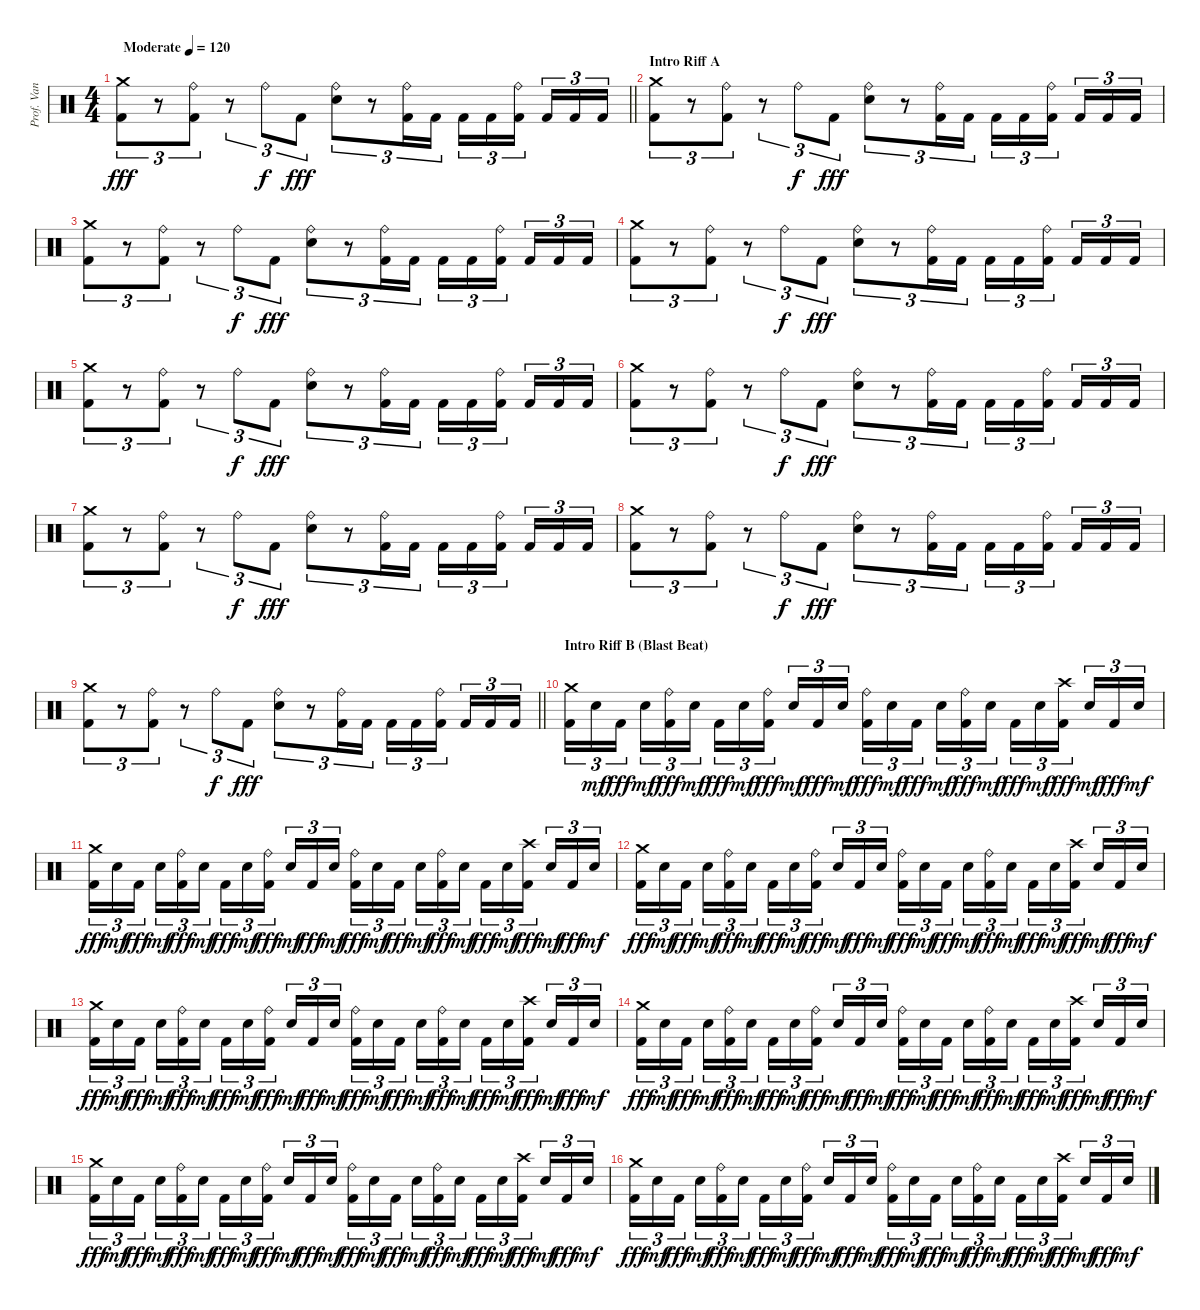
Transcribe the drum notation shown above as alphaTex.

\track ("Prof. Van Helsing (Drums)" "Prof. Van ") {instrument percussion}
\staff {score}
\articulation defaults
\ts (4 4)
\tempo (120 "Moderate")
\clef neutral
\barLineRight lightlight
\ks c
("Crash medium (hit)" "Kick (hit) 2").8{tu (3 2) dy fff} r.8{tu (3 2)} ("Ride (bell)" "Kick (hit) 2").8{tu (3 2)} r.8{tu (3 2)} "Ride (bell)".8{tu (3 2) dy f} "Kick (hit) 2".8{tu (3 2) dy fff} ("Ride (bell)" "Snare (hit) 2").8{tu (3 2)} r.8{tu (3 2)} ("Ride (bell)" "Kick (hit) 2").16{tu (3 2)} "Kick (hit) 2".16{tu (3 2)} "Kick (hit) 2".16{tu (3 2)} "Kick (hit) 2".16{tu (3 2)} ("Ride (bell)" "Kick (hit) 2").16{tu (3 2) beam splitsecondary} "Kick (hit) 2".16{tu (3 2)} "Kick (hit) 2".16{tu (3 2)} "Kick (hit) 2".16{tu (3 2)} |
\section ("" "Intro Riff A")
("Crash medium (hit)" "Kick (hit) 2").8{tu (3 2)} r.8{tu (3 2)} ("Ride (bell)" "Kick (hit) 2").8{tu (3 2)} r.8{tu (3 2)} "Ride (bell)".8{tu (3 2) dy f} "Kick (hit) 2".8{tu (3 2) dy fff} ("Ride (bell)" "Snare (hit) 2").8{tu (3 2)} r.8{tu (3 2)} ("Ride (bell)" "Kick (hit) 2").16{tu (3 2)} "Kick (hit) 2".16{tu (3 2)} "Kick (hit) 2".16{tu (3 2)} "Kick (hit) 2".16{tu (3 2)} ("Ride (bell)" "Kick (hit) 2").16{tu (3 2) beam splitsecondary} "Kick (hit) 2".16{tu (3 2)} "Kick (hit) 2".16{tu (3 2)} "Kick (hit) 2".16{tu (3 2)} |
("Crash medium (hit)" "Kick (hit) 2").8{tu (3 2)} r.8{tu (3 2)} ("Ride (bell)" "Kick (hit) 2").8{tu (3 2)} r.8{tu (3 2)} "Ride (bell)".8{tu (3 2) dy f} "Kick (hit) 2".8{tu (3 2) dy fff} ("Ride (bell)" "Snare (hit) 2").8{tu (3 2)} r.8{tu (3 2)} ("Ride (bell)" "Kick (hit) 2").16{tu (3 2)} "Kick (hit) 2".16{tu (3 2)} "Kick (hit) 2".16{tu (3 2)} "Kick (hit) 2".16{tu (3 2)} ("Ride (bell)" "Kick (hit) 2").16{tu (3 2) beam splitsecondary} "Kick (hit) 2".16{tu (3 2)} "Kick (hit) 2".16{tu (3 2)} "Kick (hit) 2".16{tu (3 2)} |
("Crash medium (hit)" "Kick (hit) 2").8{tu (3 2)} r.8{tu (3 2)} ("Ride (bell)" "Kick (hit) 2").8{tu (3 2)} r.8{tu (3 2)} "Ride (bell)".8{tu (3 2) dy f} "Kick (hit) 2".8{tu (3 2) dy fff} ("Ride (bell)" "Snare (hit) 2").8{tu (3 2)} r.8{tu (3 2)} ("Ride (bell)" "Kick (hit) 2").16{tu (3 2)} "Kick (hit) 2".16{tu (3 2)} "Kick (hit) 2".16{tu (3 2)} "Kick (hit) 2".16{tu (3 2)} ("Ride (bell)" "Kick (hit) 2").16{tu (3 2) beam splitsecondary} "Kick (hit) 2".16{tu (3 2)} "Kick (hit) 2".16{tu (3 2)} "Kick (hit) 2".16{tu (3 2)} |
("Crash medium (hit)" "Kick (hit) 2").8{tu (3 2)} r.8{tu (3 2)} ("Ride (bell)" "Kick (hit) 2").8{tu (3 2)} r.8{tu (3 2)} "Ride (bell)".8{tu (3 2) dy f} "Kick (hit) 2".8{tu (3 2) dy fff} ("Ride (bell)" "Snare (hit) 2").8{tu (3 2)} r.8{tu (3 2)} ("Ride (bell)" "Kick (hit) 2").16{tu (3 2)} "Kick (hit) 2".16{tu (3 2)} "Kick (hit) 2".16{tu (3 2)} "Kick (hit) 2".16{tu (3 2)} ("Ride (bell)" "Kick (hit) 2").16{tu (3 2) beam splitsecondary} "Kick (hit) 2".16{tu (3 2)} "Kick (hit) 2".16{tu (3 2)} "Kick (hit) 2".16{tu (3 2)} |
("Crash medium (hit)" "Kick (hit) 2").8{tu (3 2)} r.8{tu (3 2)} ("Ride (bell)" "Kick (hit) 2").8{tu (3 2)} r.8{tu (3 2)} "Ride (bell)".8{tu (3 2) dy f} "Kick (hit) 2".8{tu (3 2) dy fff} ("Ride (bell)" "Snare (hit) 2").8{tu (3 2)} r.8{tu (3 2)} ("Ride (bell)" "Kick (hit) 2").16{tu (3 2)} "Kick (hit) 2".16{tu (3 2)} "Kick (hit) 2".16{tu (3 2)} "Kick (hit) 2".16{tu (3 2)} ("Ride (bell)" "Kick (hit) 2").16{tu (3 2) beam splitsecondary} "Kick (hit) 2".16{tu (3 2)} "Kick (hit) 2".16{tu (3 2)} "Kick (hit) 2".16{tu (3 2)} |
("Crash medium (hit)" "Kick (hit) 2").8{tu (3 2)} r.8{tu (3 2)} ("Ride (bell)" "Kick (hit) 2").8{tu (3 2)} r.8{tu (3 2)} "Ride (bell)".8{tu (3 2) dy f} "Kick (hit) 2".8{tu (3 2) dy fff} ("Ride (bell)" "Snare (hit) 2").8{tu (3 2)} r.8{tu (3 2)} ("Ride (bell)" "Kick (hit) 2").16{tu (3 2)} "Kick (hit) 2".16{tu (3 2)} "Kick (hit) 2".16{tu (3 2)} "Kick (hit) 2".16{tu (3 2)} ("Ride (bell)" "Kick (hit) 2").16{tu (3 2) beam splitsecondary} "Kick (hit) 2".16{tu (3 2)} "Kick (hit) 2".16{tu (3 2)} "Kick (hit) 2".16{tu (3 2)} |
("Crash medium (hit)" "Kick (hit) 2").8{tu (3 2)} r.8{tu (3 2)} ("Ride (bell)" "Kick (hit) 2").8{tu (3 2)} r.8{tu (3 2)} "Ride (bell)".8{tu (3 2) dy f} "Kick (hit) 2".8{tu (3 2) dy fff} ("Ride (bell)" "Snare (hit) 2").8{tu (3 2)} r.8{tu (3 2)} ("Ride (bell)" "Kick (hit) 2").16{tu (3 2)} "Kick (hit) 2".16{tu (3 2)} "Kick (hit) 2".16{tu (3 2)} "Kick (hit) 2".16{tu (3 2)} ("Ride (bell)" "Kick (hit) 2").16{tu (3 2) beam splitsecondary} "Kick (hit) 2".16{tu (3 2)} "Kick (hit) 2".16{tu (3 2)} "Kick (hit) 2".16{tu (3 2)} |
\barLineRight lightlight
("Crash medium (hit)" "Kick (hit) 2").8{tu (3 2)} r.8{tu (3 2)} ("Ride (bell)" "Kick (hit) 2").8{tu (3 2)} r.8{tu (3 2)} "Ride (bell)".8{tu (3 2) dy f} "Kick (hit) 2".8{tu (3 2) dy fff} ("Ride (bell)" "Snare (hit) 2").8{tu (3 2)} r.8{tu (3 2)} ("Ride (bell)" "Kick (hit) 2").16{tu (3 2)} "Kick (hit) 2".16{tu (3 2)} "Kick (hit) 2".16{tu (3 2)} "Kick (hit) 2".16{tu (3 2)} ("Ride (bell)" "Kick (hit) 2").16{tu (3 2) beam splitsecondary} "Kick (hit) 2".16{tu (3 2)} "Kick (hit) 2".16{tu (3 2)} "Kick (hit) 2".16{tu (3 2)} |
\section ("" "Intro Riff B (Blast Beat)")
("Crash medium (hit)" "Kick (hit) 2").16{tu (3 2)} "Snare (hit) 2".16{tu (3 2) dy mf} "Kick (hit) 2".16{tu (3 2) dy fff beam splitsecondary} "Snare (hit) 2".16{tu (3 2) dy mf} ("Ride (bell)" "Kick (hit) 2").16{tu (3 2) dy fff} "Snare (hit) 2".16{tu (3 2) dy mf} "Kick (hit) 2".16{tu (3 2) dy fff} "Snare (hit) 2".16{tu (3 2) dy mf} ("Ride (bell)" "Kick (hit) 2").16{tu (3 2) dy fff beam splitsecondary} "Snare (hit) 2".16{tu (3 2) dy mf} "Kick (hit) 2".16{tu (3 2) dy fff} "Snare (hit) 2".16{tu (3 2) dy mf} ("Ride (bell)" "Kick (hit) 2").16{tu (3 2) dy fff} "Snare (hit) 2".16{tu (3 2) dy mf} "Kick (hit) 2".16{tu (3 2) dy fff beam splitsecondary} "Snare (hit) 2".16{tu (3 2) dy mf} ("Ride (bell)" "Kick (hit) 2").16{tu (3 2) dy fff} "Snare (hit) 2".16{tu (3 2) dy mf} "Kick (hit) 2".16{tu (3 2) dy fff} "Snare (hit) 2".16{tu (3 2) dy mf} ("Crash high (hit)" "Kick (hit) 2").16{tu (3 2) dy fff beam splitsecondary} "Snare (hit) 2".16{tu (3 2) dy mf} "Kick (hit) 2".16{tu (3 2) dy fff} "Snare (hit) 2".16{tu (3 2) dy mf} |
("Crash medium (hit)" "Kick (hit) 2").16{tu (3 2) dy fff} "Snare (hit) 2".16{tu (3 2) dy mf} "Kick (hit) 2".16{tu (3 2) dy fff beam splitsecondary} "Snare (hit) 2".16{tu (3 2) dy mf} ("Ride (bell)" "Kick (hit) 2").16{tu (3 2) dy fff} "Snare (hit) 2".16{tu (3 2) dy mf} "Kick (hit) 2".16{tu (3 2) dy fff} "Snare (hit) 2".16{tu (3 2) dy mf} ("Ride (bell)" "Kick (hit) 2").16{tu (3 2) dy fff beam splitsecondary} "Snare (hit) 2".16{tu (3 2) dy mf} "Kick (hit) 2".16{tu (3 2) dy fff} "Snare (hit) 2".16{tu (3 2) dy mf} ("Ride (bell)" "Kick (hit) 2").16{tu (3 2) dy fff} "Snare (hit) 2".16{tu (3 2) dy mf} "Kick (hit) 2".16{tu (3 2) dy fff beam splitsecondary} "Snare (hit) 2".16{tu (3 2) dy mf} ("Ride (bell)" "Kick (hit) 2").16{tu (3 2) dy fff} "Snare (hit) 2".16{tu (3 2) dy mf} "Kick (hit) 2".16{tu (3 2) dy fff} "Snare (hit) 2".16{tu (3 2) dy mf} ("Crash high (hit)" "Kick (hit) 2").16{tu (3 2) dy fff beam splitsecondary} "Snare (hit) 2".16{tu (3 2) dy mf} "Kick (hit) 2".16{tu (3 2) dy fff} "Snare (hit) 2".16{tu (3 2) dy mf} |
("Crash medium (hit)" "Kick (hit) 2").16{tu (3 2) dy fff} "Snare (hit) 2".16{tu (3 2) dy mf} "Kick (hit) 2".16{tu (3 2) dy fff beam splitsecondary} "Snare (hit) 2".16{tu (3 2) dy mf} ("Ride (bell)" "Kick (hit) 2").16{tu (3 2) dy fff} "Snare (hit) 2".16{tu (3 2) dy mf} "Kick (hit) 2".16{tu (3 2) dy fff} "Snare (hit) 2".16{tu (3 2) dy mf} ("Ride (bell)" "Kick (hit) 2").16{tu (3 2) dy fff beam splitsecondary} "Snare (hit) 2".16{tu (3 2) dy mf} "Kick (hit) 2".16{tu (3 2) dy fff} "Snare (hit) 2".16{tu (3 2) dy mf} ("Ride (bell)" "Kick (hit) 2").16{tu (3 2) dy fff} "Snare (hit) 2".16{tu (3 2) dy mf} "Kick (hit) 2".16{tu (3 2) dy fff beam splitsecondary} "Snare (hit) 2".16{tu (3 2) dy mf} ("Ride (bell)" "Kick (hit) 2").16{tu (3 2) dy fff} "Snare (hit) 2".16{tu (3 2) dy mf} "Kick (hit) 2".16{tu (3 2) dy fff} "Snare (hit) 2".16{tu (3 2) dy mf} ("Crash high (hit)" "Kick (hit) 2").16{tu (3 2) dy fff beam splitsecondary} "Snare (hit) 2".16{tu (3 2) dy mf} "Kick (hit) 2".16{tu (3 2) dy fff} "Snare (hit) 2".16{tu (3 2) dy mf} |
("Crash medium (hit)" "Kick (hit) 2").16{tu (3 2) dy fff} "Snare (hit) 2".16{tu (3 2) dy mf} "Kick (hit) 2".16{tu (3 2) dy fff beam splitsecondary} "Snare (hit) 2".16{tu (3 2) dy mf} ("Ride (bell)" "Kick (hit) 2").16{tu (3 2) dy fff} "Snare (hit) 2".16{tu (3 2) dy mf} "Kick (hit) 2".16{tu (3 2) dy fff} "Snare (hit) 2".16{tu (3 2) dy mf} ("Ride (bell)" "Kick (hit) 2").16{tu (3 2) dy fff beam splitsecondary} "Snare (hit) 2".16{tu (3 2) dy mf} "Kick (hit) 2".16{tu (3 2) dy fff} "Snare (hit) 2".16{tu (3 2) dy mf} ("Ride (bell)" "Kick (hit) 2").16{tu (3 2) dy fff} "Snare (hit) 2".16{tu (3 2) dy mf} "Kick (hit) 2".16{tu (3 2) dy fff beam splitsecondary} "Snare (hit) 2".16{tu (3 2) dy mf} ("Ride (bell)" "Kick (hit) 2").16{tu (3 2) dy fff} "Snare (hit) 2".16{tu (3 2) dy mf} "Kick (hit) 2".16{tu (3 2) dy fff} "Snare (hit) 2".16{tu (3 2) dy mf} ("Crash high (hit)" "Kick (hit) 2").16{tu (3 2) dy fff beam splitsecondary} "Snare (hit) 2".16{tu (3 2) dy mf} "Kick (hit) 2".16{tu (3 2) dy fff} "Snare (hit) 2".16{tu (3 2) dy mf} |
("Crash medium (hit)" "Kick (hit) 2").16{tu (3 2) dy fff} "Snare (hit) 2".16{tu (3 2) dy mf} "Kick (hit) 2".16{tu (3 2) dy fff beam splitsecondary} "Snare (hit) 2".16{tu (3 2) dy mf} ("Ride (bell)" "Kick (hit) 2").16{tu (3 2) dy fff} "Snare (hit) 2".16{tu (3 2) dy mf} "Kick (hit) 2".16{tu (3 2) dy fff} "Snare (hit) 2".16{tu (3 2) dy mf} ("Ride (bell)" "Kick (hit) 2").16{tu (3 2) dy fff beam splitsecondary} "Snare (hit) 2".16{tu (3 2) dy mf} "Kick (hit) 2".16{tu (3 2) dy fff} "Snare (hit) 2".16{tu (3 2) dy mf} ("Ride (bell)" "Kick (hit) 2").16{tu (3 2) dy fff} "Snare (hit) 2".16{tu (3 2) dy mf} "Kick (hit) 2".16{tu (3 2) dy fff beam splitsecondary} "Snare (hit) 2".16{tu (3 2) dy mf} ("Ride (bell)" "Kick (hit) 2").16{tu (3 2) dy fff} "Snare (hit) 2".16{tu (3 2) dy mf} "Kick (hit) 2".16{tu (3 2) dy fff} "Snare (hit) 2".16{tu (3 2) dy mf} ("Crash high (hit)" "Kick (hit) 2").16{tu (3 2) dy fff beam splitsecondary} "Snare (hit) 2".16{tu (3 2) dy mf} "Kick (hit) 2".16{tu (3 2) dy fff} "Snare (hit) 2".16{tu (3 2) dy mf} |
("Crash medium (hit)" "Kick (hit) 2").16{tu (3 2) dy fff} "Snare (hit) 2".16{tu (3 2) dy mf} "Kick (hit) 2".16{tu (3 2) dy fff beam splitsecondary} "Snare (hit) 2".16{tu (3 2) dy mf} ("Ride (bell)" "Kick (hit) 2").16{tu (3 2) dy fff} "Snare (hit) 2".16{tu (3 2) dy mf} "Kick (hit) 2".16{tu (3 2) dy fff} "Snare (hit) 2".16{tu (3 2) dy mf} ("Ride (bell)" "Kick (hit) 2").16{tu (3 2) dy fff beam splitsecondary} "Snare (hit) 2".16{tu (3 2) dy mf} "Kick (hit) 2".16{tu (3 2) dy fff} "Snare (hit) 2".16{tu (3 2) dy mf} ("Ride (bell)" "Kick (hit) 2").16{tu (3 2) dy fff} "Snare (hit) 2".16{tu (3 2) dy mf} "Kick (hit) 2".16{tu (3 2) dy fff beam splitsecondary} "Snare (hit) 2".16{tu (3 2) dy mf} ("Ride (bell)" "Kick (hit) 2").16{tu (3 2) dy fff} "Snare (hit) 2".16{tu (3 2) dy mf} "Kick (hit) 2".16{tu (3 2) dy fff} "Snare (hit) 2".16{tu (3 2) dy mf} ("Crash high (hit)" "Kick (hit) 2").16{tu (3 2) dy fff beam splitsecondary} "Snare (hit) 2".16{tu (3 2) dy mf} "Kick (hit) 2".16{tu (3 2) dy fff} "Snare (hit) 2".16{tu (3 2) dy mf} |
("Crash medium (hit)" "Kick (hit) 2").16{tu (3 2) dy fff} "Snare (hit) 2".16{tu (3 2) dy mf} "Kick (hit) 2".16{tu (3 2) dy fff beam splitsecondary} "Snare (hit) 2".16{tu (3 2) dy mf} ("Ride (bell)" "Kick (hit) 2").16{tu (3 2) dy fff} "Snare (hit) 2".16{tu (3 2) dy mf} "Kick (hit) 2".16{tu (3 2) dy fff} "Snare (hit) 2".16{tu (3 2) dy mf} ("Ride (bell)" "Kick (hit) 2").16{tu (3 2) dy fff beam splitsecondary} "Snare (hit) 2".16{tu (3 2) dy mf} "Kick (hit) 2".16{tu (3 2) dy fff} "Snare (hit) 2".16{tu (3 2) dy mf} ("Ride (bell)" "Kick (hit) 2").16{tu (3 2) dy fff} "Snare (hit) 2".16{tu (3 2) dy mf} "Kick (hit) 2".16{tu (3 2) dy fff beam splitsecondary} "Snare (hit) 2".16{tu (3 2) dy mf} ("Ride (bell)" "Kick (hit) 2").16{tu (3 2) dy fff} "Snare (hit) 2".16{tu (3 2) dy mf} "Kick (hit) 2".16{tu (3 2) dy fff} "Snare (hit) 2".16{tu (3 2) dy mf} ("Crash high (hit)" "Kick (hit) 2").16{tu (3 2) dy fff beam splitsecondary} "Snare (hit) 2".16{tu (3 2) dy mf} "Kick (hit) 2".16{tu (3 2) dy fff} "Snare (hit) 2".16{tu (3 2) dy mf}
